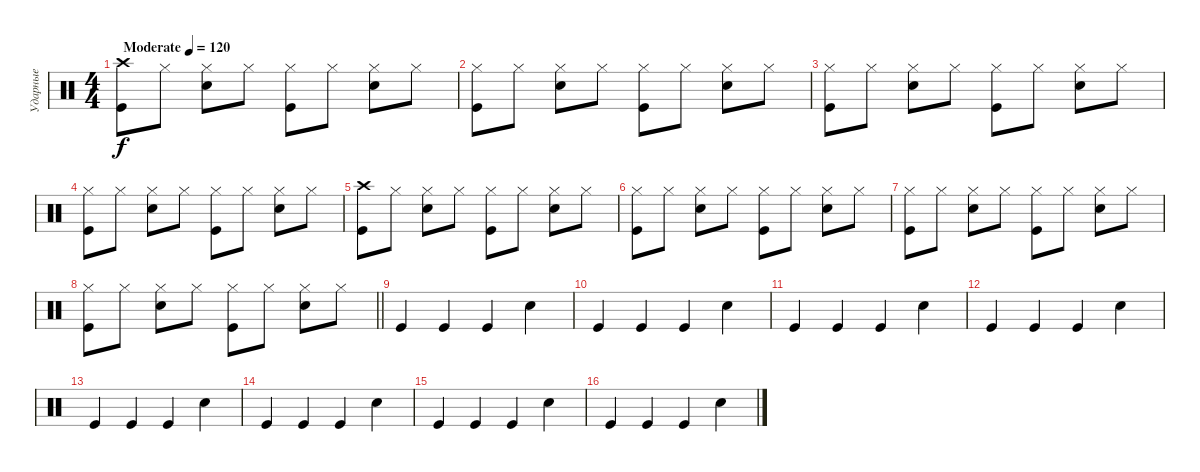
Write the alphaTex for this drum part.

\track ("Ударные" "Ударные") {instrument percussion}
\staff {score}
\articulation defaults
\ts (4 4)
\tempo (120 "Moderate")
\clef neutral
\ks c
("Crash high (hit)" "Kick (hit)").8{dy f} "Hi-Hat (closed)".8 ("Hi-Hat (closed)" "Electric Snare (hit)").8 "Hi-Hat (closed)".8 ("Hi-Hat (closed)" "Kick (hit)").8 "Hi-Hat (closed)".8 ("Hi-Hat (closed)" "Electric Snare (hit)").8 "Hi-Hat (closed)".8 |
("Hi-Hat (closed)" "Kick (hit)").8 "Hi-Hat (closed)".8 ("Hi-Hat (closed)" "Electric Snare (hit)").8 "Hi-Hat (closed)".8 ("Hi-Hat (closed)" "Kick (hit)").8 "Hi-Hat (closed)".8 ("Hi-Hat (closed)" "Electric Snare (hit)").8 "Hi-Hat (closed)".8 |
("Hi-Hat (closed)" "Kick (hit)").8 "Hi-Hat (closed)".8 ("Hi-Hat (closed)" "Electric Snare (hit)").8 "Hi-Hat (closed)".8 ("Hi-Hat (closed)" "Kick (hit)").8 "Hi-Hat (closed)".8 ("Hi-Hat (closed)" "Electric Snare (hit)").8 "Hi-Hat (closed)".8 |
("Hi-Hat (closed)" "Kick (hit)").8 "Hi-Hat (closed)".8 ("Hi-Hat (closed)" "Electric Snare (hit)").8 "Hi-Hat (closed)".8 ("Hi-Hat (closed)" "Kick (hit)").8 "Hi-Hat (closed)".8 ("Hi-Hat (closed)" "Electric Snare (hit)").8 "Hi-Hat (closed)".8 |
("Crash high (hit)" "Kick (hit)").8 "Hi-Hat (closed)".8 ("Hi-Hat (closed)" "Electric Snare (hit)").8 "Hi-Hat (closed)".8 ("Hi-Hat (closed)" "Kick (hit)").8 "Hi-Hat (closed)".8 ("Hi-Hat (closed)" "Electric Snare (hit)").8 "Hi-Hat (closed)".8 |
("Hi-Hat (closed)" "Kick (hit)").8 "Hi-Hat (closed)".8 ("Hi-Hat (closed)" "Electric Snare (hit)").8 "Hi-Hat (closed)".8 ("Hi-Hat (closed)" "Kick (hit)").8 "Hi-Hat (closed)".8 ("Hi-Hat (closed)" "Electric Snare (hit)").8 "Hi-Hat (closed)".8 |
("Hi-Hat (closed)" "Kick (hit)").8 "Hi-Hat (closed)".8 ("Hi-Hat (closed)" "Electric Snare (hit)").8 "Hi-Hat (closed)".8 ("Hi-Hat (closed)" "Kick (hit)").8 "Hi-Hat (closed)".8 ("Hi-Hat (closed)" "Electric Snare (hit)").8 "Hi-Hat (closed)".8 |
\barLineRight lightlight
("Hi-Hat (closed)" "Kick (hit)").8 "Hi-Hat (closed)".8 ("Hi-Hat (closed)" "Electric Snare (hit)").8 "Hi-Hat (closed)".8 ("Hi-Hat (closed)" "Kick (hit)").8 "Hi-Hat (closed)".8 ("Hi-Hat (closed)" "Electric Snare (hit)").8 "Hi-Hat (closed)".8 |
"Kick (hit)".4 "Kick (hit)".4 "Kick (hit)".4 "Hand Clap (hit)".4 |
"Kick (hit)".4 "Kick (hit)".4 "Kick (hit)".4 "Hand Clap (hit)".4 |
"Kick (hit)".4 "Kick (hit)".4 "Kick (hit)".4 "Hand Clap (hit)".4 |
"Kick (hit)".4 "Kick (hit)".4 "Kick (hit)".4 "Hand Clap (hit)".4 |
"Kick (hit)".4 "Kick (hit)".4 "Kick (hit)".4 "Hand Clap (hit)".4 |
"Kick (hit)".4 "Kick (hit)".4 "Kick (hit)".4 "Hand Clap (hit)".4 |
"Kick (hit)".4 "Kick (hit)".4 "Kick (hit)".4 "Hand Clap (hit)".4 |
"Kick (hit)".4 "Kick (hit)".4 "Kick (hit)".4 "Hand Clap (hit)".4
